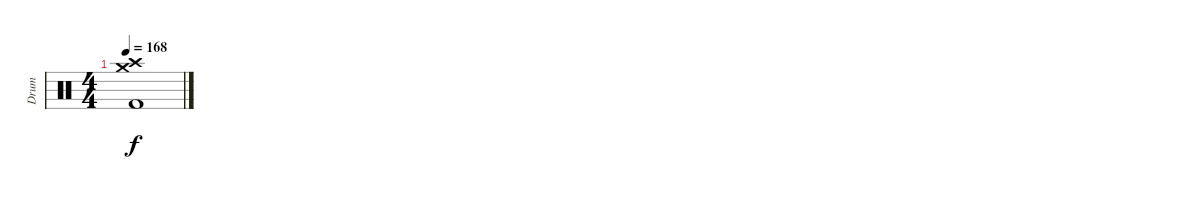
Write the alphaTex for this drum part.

\track ("Drum" "Drum") {instrument percussion}
\staff {score}
\articulation defaults
\ts (4 4)
\tempo 168
\clef neutral
\ks c
("Crash high (hit)" "Crash medium (hit)" "Kick (hit) 2").1{dy f}
